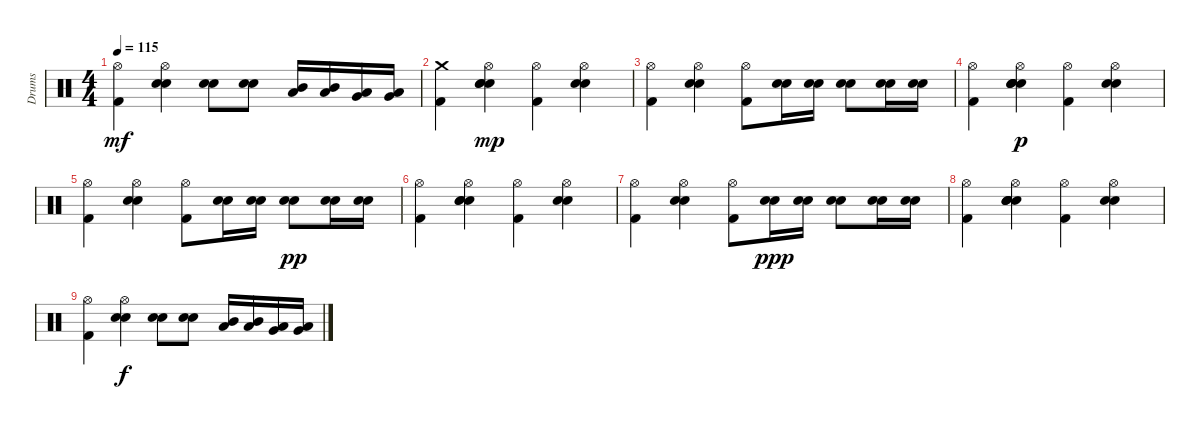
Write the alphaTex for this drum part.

\track ("Drums" "Drums") {instrument percussion}
\staff {score}
\articulation defaults
\ts (4 4)
\tempo 115
\clef neutral
\ks c
("Hi-Hat (open)" "Kick (hit) 2").4{dy mf} ("Hi-Hat (open)" "Electric Snare (hit)" "Snare (hit) 2").4 ("Electric Snare (hit)" "Snare (hit) 2").8 ("Electric Snare (hit)" "Snare (hit) 2").8 ("Mid Tom (hit)" "Low Tom (hit)").16 ("Mid Tom (hit)" "Low Tom (hit)").16 ("Low Tom (hit)" "Very Low Tom (hit)").16 ("Low Tom (hit)" "Very Low Tom (hit)").16 |
("Crash medium (hit)" "Kick (hit) 2").4 ("Hand Clap (hit)" "Hi-Hat (open)" "Electric Snare (hit)" "Snare (hit) 2").4{dy mp} ("Hi-Hat (open)" "Kick (hit) 2").4 ("Hi-Hat (open)" "Electric Snare (hit)" "Snare (hit) 2").4 |
("Hi-Hat (open)" "Kick (hit) 2").4 ("Hi-Hat (open)" "Electric Snare (hit)" "Snare (hit) 2").4 ("Hi-Hat (open)" "Kick (hit) 2").8 ("Electric Snare (hit)" "Snare (hit) 2").16 ("Electric Snare (hit)" "Snare (hit) 2").16 ("Electric Snare (hit)" "Snare (hit) 2").8 ("Electric Snare (hit)" "Snare (hit) 2").16 ("Electric Snare (hit)" "Snare (hit) 2").16 |
("Hi-Hat (open)" "Kick (hit) 2").4 ("Snare (hit) 2" "Electric Snare (hit)" "Hi-Hat (open)" "Electric Snare (hit)" "Hand Clap (hit)").4{dy p} ("Hi-Hat (open)" "Kick (hit) 2").4 ("Hi-Hat (open)" "Electric Snare (hit)" "Snare (hit) 2").4 |
("Hi-Hat (open)" "Kick (hit) 2").4 ("Hi-Hat (open)" "Electric Snare (hit)" "Snare (hit) 2").4 ("Hi-Hat (open)" "Kick (hit) 2").8 ("Electric Snare (hit)" "Snare (hit) 2").16 ("Electric Snare (hit)" "Snare (hit) 2").16 ("Electric Snare (hit)" "Snare (hit) 2").8{dy pp} ("Electric Snare (hit)" "Snare (hit) 2").16 ("Electric Snare (hit)" "Snare (hit) 2").16 |
("Hi-Hat (open)" "Kick (hit) 2").4 ("Hand Clap (hit)" "Hi-Hat (open)" "Electric Snare (hit)" "Snare (hit) 2").4 ("Hi-Hat (open)" "Kick (hit) 2").4 ("Hi-Hat (open)" "Electric Snare (hit)" "Snare (hit) 2").4 |
("Hi-Hat (open)" "Kick (hit) 2").4{volume 7} ("Hi-Hat (open)" "Electric Snare (hit)" "Snare (hit) 2").4 ("Hi-Hat (open)" "Kick (hit) 2").8 ("Electric Snare (hit)" "Snare (hit) 2").16{dy ppp} ("Electric Snare (hit)" "Snare (hit) 2").16 ("Electric Snare (hit)" "Snare (hit) 2").8 ("Electric Snare (hit)" "Snare (hit) 2").16 ("Electric Snare (hit)" "Snare (hit) 2").16 |
("Hi-Hat (open)" "Kick (hit) 2").4{volume 4} ("Snare (hit) 2" "Electric Snare (hit)" "Hi-Hat (open)" "Electric Snare (hit)" "Hand Clap (hit)").4 ("Hi-Hat (open)" "Kick (hit) 2").4 ("Hi-Hat (open)" "Electric Snare (hit)" "Snare (hit) 2").4 |
("Hi-Hat (open)" "Kick (hit) 2").4{volume 0} ("Hi-Hat (open)" "Electric Snare (hit)" "Snare (hit) 2").4{dy f} ("Electric Snare (hit)" "Snare (hit) 2").8 ("Electric Snare (hit)" "Snare (hit) 2").8 ("Mid Tom (hit)" "Low Tom (hit)").16 ("Mid Tom (hit)" "Low Tom (hit)").16 ("Low Tom (hit)" "Very Low Tom (hit)").16 ("Low Tom (hit)" "Very Low Tom (hit)").16
